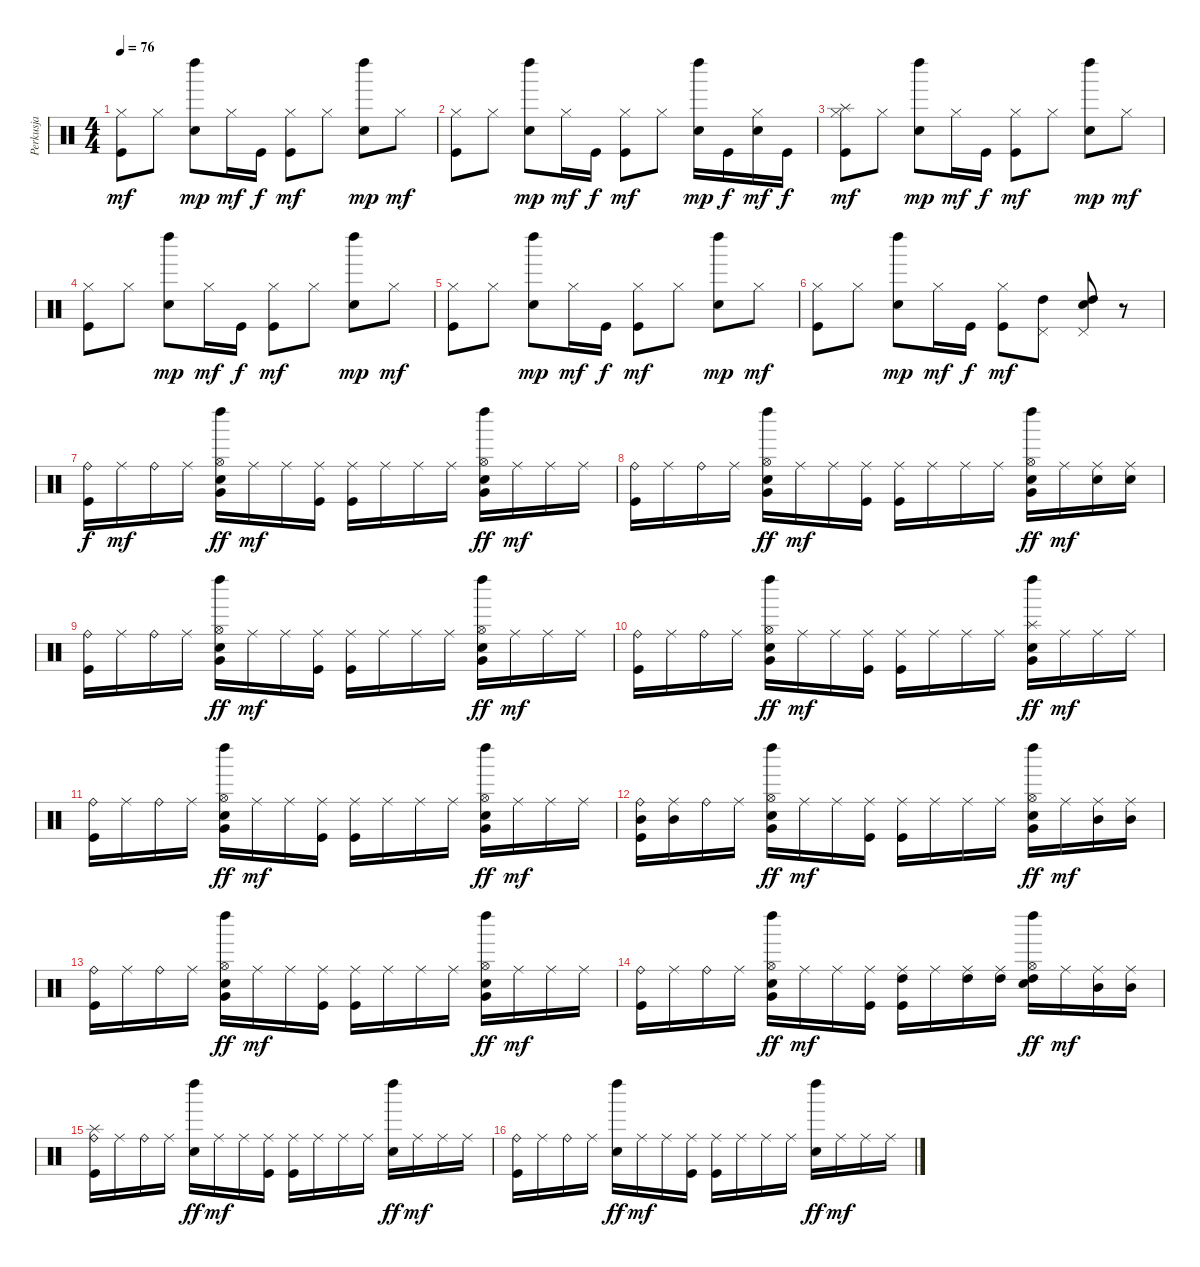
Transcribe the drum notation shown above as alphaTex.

\track ("Perkusja" "Perkusja") {instrument percussion}
\staff {score}
\articulation defaults
\ts (4 4)
\tempo 76
\clef neutral
\ks c
("Kick (hit)" "Hi-Hat (closed)").8{dy mf} "Hi-Hat (closed)".8 ("Electric Snare (hit)" "Left Maraca (hit)").8{dy mp} "Hi-Hat (closed)".16{dy mf} "Kick (hit)".16{dy f} ("Kick (hit)" "Hi-Hat (closed)").8{dy mf} "Hi-Hat (closed)".8 ("Electric Snare (hit)" "Left Maraca (hit)").8{dy mp} "Hi-Hat (closed)".8{dy mf} |
("Kick (hit)" "Hi-Hat (closed)").8 "Hi-Hat (closed)".8 ("Electric Snare (hit)" "Left Maraca (hit)").8{dy mp} "Hi-Hat (closed)".16{dy mf} "Kick (hit)".16{dy f} ("Kick (hit)" "Hi-Hat (closed)").8{dy mf} "Hi-Hat (closed)".8 ("Electric Snare (hit)" "Left Maraca (hit)").16{dy mp} "Kick (hit)".16{dy f} ("Electric Snare (hit)" "Hi-Hat (closed)").16{dy mf} "Kick (hit)".16{dy f} |
("Kick (hit)" "Splash (hit)" "Hi-Hat (closed)").8{dy mf} "Hi-Hat (closed)".8 ("Electric Snare (hit)" "Left Maraca (hit)").8{dy mp} "Hi-Hat (closed)".16{dy mf} "Kick (hit)".16{dy f} ("Kick (hit)" "Hi-Hat (closed)").8{dy mf} "Hi-Hat (closed)".8 ("Electric Snare (hit)" "Left Maraca (hit)").8{dy mp} "Hi-Hat (closed)".8{dy mf} |
("Kick (hit)" "Hi-Hat (closed)").8 "Hi-Hat (closed)".8 ("Electric Snare (hit)" "Left Maraca (hit)").8{dy mp} "Hi-Hat (closed)".16{dy mf} "Kick (hit)".16{dy f} ("Kick (hit)" "Hi-Hat (closed)").8{dy mf} "Hi-Hat (closed)".8 ("Electric Snare (hit)" "Left Maraca (hit)").8{dy mp} "Hi-Hat (closed)".8{dy mf} |
("Kick (hit)" "Hi-Hat (closed)").8 "Hi-Hat (closed)".8 ("Electric Snare (hit)" "Left Maraca (hit)").8{dy mp} "Hi-Hat (closed)".16{dy mf} "Kick (hit)".16{dy f} ("Kick (hit)" "Hi-Hat (closed)").8{dy mf} "Hi-Hat (closed)".8 ("Electric Snare (hit)" "Left Maraca (hit)").8{dy mp} "Hi-Hat (closed)".8{dy mf} |
("Kick (hit)" "Hi-Hat (closed)").8 "Hi-Hat (closed)".8 ("Electric Snare (hit)" "Left Maraca (hit)").8{dy mp} "Hi-Hat (closed)".16{dy mf} "Kick (hit)".16{dy f} ("Kick (hit)" "Hi-Hat (closed)").8{dy mf} ("High Tom (hit)" "Pedal Hi-Hat (hit)").8 ("Electric Snare (hit)" "High Tom (hit)" "Pedal Hi-Hat (hit)").8 r.8 |
("Kick (hit)" "Ride (bell)").16{dy f} "Ride (middle)".16{dy mf} "Ride (bell)".16 "Ride (middle)".16 ("Electric Snare (hit)" "Hi-Hat (open)" "Left Maraca (hit)" "Very Low Tom (hit)").16{dy ff} "Ride (middle)".16{dy mf} "Ride (middle)".16 ("Kick (hit)" "Ride (middle)").16 ("Kick (hit)" "Ride (middle)").16 "Ride (middle)".16 "Ride (middle)".16 "Ride (middle)".16 ("Electric Snare (hit)" "Hi-Hat (open)" "Left Maraca (hit)" "Very Low Tom (hit)").16{dy ff} "Ride (middle)".16{dy mf} "Ride (middle)".16 "Ride (middle)".16 |
("Kick (hit)" "Ride (bell)").16 "Ride (middle)".16 "Ride (bell)".16 "Ride (middle)".16 ("Electric Snare (hit)" "Hi-Hat (open)" "Left Maraca (hit)" "Very Low Tom (hit)").16{dy ff} "Ride (middle)".16{dy mf} "Ride (middle)".16 ("Kick (hit)" "Ride (middle)").16 ("Kick (hit)" "Ride (middle)").16 "Ride (middle)".16 "Ride (middle)".16 "Ride (middle)".16 ("Electric Snare (hit)" "Hi-Hat (open)" "Left Maraca (hit)" "Very Low Tom (hit)").16{dy ff} "Ride (middle)".16{dy mf} ("Electric Snare (hit)" "Ride (middle)").16 ("Electric Snare (hit)" "Ride (middle)").16 |
("Kick (hit)" "Ride (bell)").16 "Ride (middle)".16 "Ride (bell)".16 "Ride (middle)".16 ("Electric Snare (hit)" "Hi-Hat (open)" "Left Maraca (hit)" "Very Low Tom (hit)").16{dy ff} "Ride (middle)".16{dy mf} "Ride (middle)".16 ("Kick (hit)" "Ride (middle)").16 ("Kick (hit)" "Ride (middle)").16 "Ride (middle)".16 "Ride (middle)".16 "Ride (middle)".16 ("Electric Snare (hit)" "Hi-Hat (open)" "Left Maraca (hit)" "Very Low Tom (hit)").16{dy ff} "Ride (middle)".16{dy mf} "Ride (middle)".16 "Ride (middle)".16 |
("Kick (hit)" "Ride (bell)").16 "Ride (middle)".16 "Ride (bell)".16 "Ride (middle)".16 ("Electric Snare (hit)" "Hi-Hat (open)" "Left Maraca (hit)" "Very Low Tom (hit)").16{dy ff} "Ride (middle)".16{dy mf} "Ride (middle)".16 ("Kick (hit)" "Ride (middle)").16 ("Kick (hit)" "Ride (middle)").16 "Ride (middle)".16 "Ride (middle)".16 "Ride (middle)".16 ("Electric Snare (hit)" "Splash (hit)" "Left Maraca (hit)" "Very Low Tom (hit)").16{dy ff} "Ride (middle)".16{dy mf} "Ride (middle)".16 "Ride (middle)".16 |
("Kick (hit)" "Ride (bell)").16 "Ride (middle)".16 "Ride (bell)".16 "Ride (middle)".16 ("Electric Snare (hit)" "Hi-Hat (open)" "Left Maraca (hit)" "Very Low Tom (hit)").16{dy ff} "Ride (middle)".16{dy mf} "Ride (middle)".16 ("Kick (hit)" "Ride (middle)").16 ("Kick (hit)" "Ride (middle)").16 "Ride (middle)".16 "Ride (middle)".16 "Ride (middle)".16 ("Electric Snare (hit)" "Hi-Hat (open)" "Left Maraca (hit)" "Very Low Tom (hit)").16{dy ff} "Ride (middle)".16{dy mf} "Ride (middle)".16 "Ride (middle)".16 |
("Kick (hit)" "Mid Tom (hit)" "Ride (bell)").16 ("Mid Tom (hit)" "Ride (middle)").16 "Ride (bell)".16 "Ride (middle)".16 ("Electric Snare (hit)" "Hi-Hat (open)" "Left Maraca (hit)" "Very Low Tom (hit)").16{dy ff} "Ride (middle)".16{dy mf} "Ride (middle)".16 ("Kick (hit)" "Ride (middle)").16 ("Kick (hit)" "Ride (middle)").16 "Ride (middle)".16 "Ride (middle)".16 "Ride (middle)".16 ("Electric Snare (hit)" "Hi-Hat (open)" "Left Maraca (hit)" "Very Low Tom (hit)").16{dy ff} "Ride (middle)".16{dy mf} ("Mid Tom (hit)" "Ride (middle)").16 ("Mid Tom (hit)" "Ride (middle)").16 |
("Kick (hit)" "Ride (bell)").16 "Ride (middle)".16 "Ride (bell)".16 "Ride (middle)".16 ("Electric Snare (hit)" "Hi-Hat (open)" "Left Maraca (hit)" "Very Low Tom (hit)").16{dy ff} "Ride (middle)".16{dy mf} "Ride (middle)".16 ("Kick (hit)" "Ride (middle)").16 ("Kick (hit)" "Ride (middle)").16 "Ride (middle)".16 "Ride (middle)".16 "Ride (middle)".16 ("Electric Snare (hit)" "Hi-Hat (open)" "Left Maraca (hit)" "Very Low Tom (hit)").16{dy ff} "Ride (middle)".16{dy mf} "Ride (middle)".16 "Ride (middle)".16 |
("Kick (hit)" "Ride (bell)").16 "Ride (middle)".16 "Ride (bell)".16 "Ride (middle)".16 ("Electric Snare (hit)" "Hi-Hat (open)" "Left Maraca (hit)" "Very Low Tom (hit)").16{dy ff} "Ride (middle)".16{dy mf} "Ride (middle)".16 ("Kick (hit)" "Ride (middle)").16 ("Kick (hit)" "High Tom (hit)" "Ride (middle)").16 "Ride (middle)".16 ("High Tom (hit)" "Ride (middle)").16 ("High Tom (hit)" "Ride (middle)").16 ("Electric Snare (hit)" "High Tom (hit)" "Hi-Hat (open)" "Left Maraca (hit)").16{dy ff} "Ride (middle)".16{dy mf} ("Mid Tom (hit)" "Ride (middle)").16 ("Mid Tom (hit)" "Ride (middle)").16 |
("Kick (hit)" "Splash (hit)" "Ride (bell)").16 "Ride (middle)".16 "Ride (bell)".16 "Ride (middle)".16 ("Electric Snare (hit)" "Left Maraca (hit)").16{dy ff} "Ride (middle)".16{dy mf} "Ride (middle)".16 ("Kick (hit)" "Ride (middle)").16 ("Kick (hit)" "Ride (middle)").16 "Ride (middle)".16 "Ride (middle)".16 "Ride (middle)".16 ("Electric Snare (hit)" "Left Maraca (hit)").16{dy ff} "Ride (middle)".16{dy mf} "Ride (middle)".16 "Ride (middle)".16 |
("Kick (hit)" "Ride (bell)").16 "Ride (middle)".16 "Ride (bell)".16 "Ride (middle)".16 ("Electric Snare (hit)" "Left Maraca (hit)").16{dy ff} "Ride (middle)".16{dy mf} "Ride (middle)".16 ("Kick (hit)" "Ride (middle)").16 ("Kick (hit)" "Ride (middle)").16 "Ride (middle)".16 "Ride (middle)".16 "Ride (middle)".16 ("Electric Snare (hit)" "Left Maraca (hit)").16{dy ff} "Ride (middle)".16{dy mf} "Ride (middle)".16 "Ride (middle)".16
